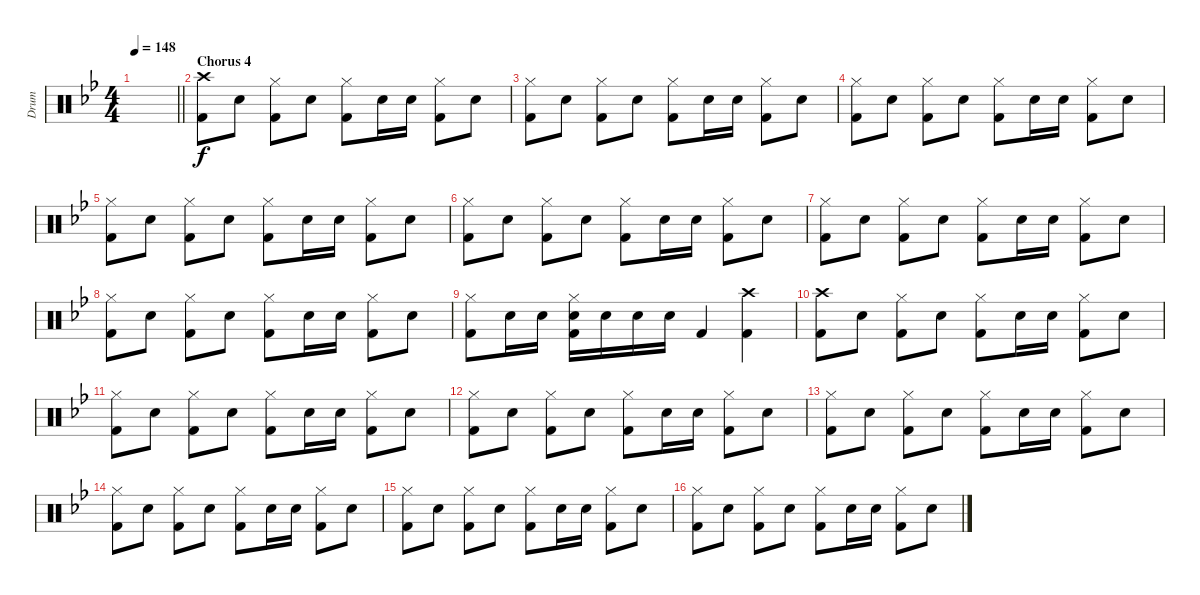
\track ("Drum" "Drum") {instrument percussion}
\staff {score}
\articulation defaults
\ts (4 4)
\tempo 148
\clef neutral
\barLineRight lightlight
\ks bb
|
\section ("" "Chorus 4")
("Crash high (hit)" "Kick (hit) 2").8 "Snare (hit) 2".8 ("Hi-Hat (closed)" "Kick (hit) 2").8 "Snare (hit) 2".8 ("Hi-Hat (closed)" "Kick (hit) 2").8 "Snare (hit) 2".16 "Snare (hit) 2".16 ("Hi-Hat (closed)" "Kick (hit) 2").8 "Snare (hit) 2".8 |
("Hi-Hat (closed)" "Kick (hit) 2").8 "Snare (hit) 2".8 ("Hi-Hat (closed)" "Kick (hit) 2").8 "Snare (hit) 2".8 ("Hi-Hat (closed)" "Kick (hit) 2").8 "Snare (hit) 2".16 "Snare (hit) 2".16 ("Hi-Hat (closed)" "Kick (hit) 2").8 "Snare (hit) 2".8 |
("Hi-Hat (closed)" "Kick (hit) 2").8 "Snare (hit) 2".8 ("Hi-Hat (closed)" "Kick (hit) 2").8 "Snare (hit) 2".8 ("Hi-Hat (closed)" "Kick (hit) 2").8 "Snare (hit) 2".16 "Snare (hit) 2".16 ("Hi-Hat (closed)" "Kick (hit) 2").8 "Snare (hit) 2".8 |
("Hi-Hat (closed)" "Kick (hit) 2").8 "Snare (hit) 2".8 ("Hi-Hat (closed)" "Kick (hit) 2").8 "Snare (hit) 2".8 ("Hi-Hat (closed)" "Kick (hit) 2").8 "Snare (hit) 2".16 "Snare (hit) 2".16 ("Hi-Hat (closed)" "Kick (hit) 2").8 "Snare (hit) 2".8 |
("Hi-Hat (closed)" "Kick (hit) 2").8 "Snare (hit) 2".8 ("Hi-Hat (closed)" "Kick (hit) 2").8 "Snare (hit) 2".8 ("Hi-Hat (closed)" "Kick (hit) 2").8 "Snare (hit) 2".16 "Snare (hit) 2".16 ("Hi-Hat (closed)" "Kick (hit) 2").8 "Snare (hit) 2".8 |
("Hi-Hat (closed)" "Kick (hit) 2").8 "Snare (hit) 2".8 ("Hi-Hat (closed)" "Kick (hit) 2").8 "Snare (hit) 2".8 ("Hi-Hat (closed)" "Kick (hit) 2").8 "Snare (hit) 2".16 "Snare (hit) 2".16 ("Hi-Hat (closed)" "Kick (hit) 2").8 "Snare (hit) 2".8 |
("Hi-Hat (closed)" "Kick (hit) 2").8 "Snare (hit) 2".8 ("Hi-Hat (closed)" "Kick (hit) 2").8 "Snare (hit) 2".8 ("Hi-Hat (closed)" "Kick (hit) 2").8 "Snare (hit) 2".16 "Snare (hit) 2".16 ("Hi-Hat (closed)" "Kick (hit) 2").8 "Snare (hit) 2".8 |
("Hi-Hat (closed)" "Kick (hit) 2").8 "Snare (hit) 2".16 "Snare (hit) 2".16 ("Hi-Hat (closed)" "Snare (hit) 2" "Kick (hit) 2").16 "Snare (hit) 2".16 "Snare (hit) 2".16 "Snare (hit) 2".16 "Kick (hit) 2".4 ("Crash high (hit)" "Kick (hit) 2").4 |
("Crash high (hit)" "Kick (hit) 2").8 "Snare (hit) 2".8 ("Hi-Hat (closed)" "Kick (hit) 2").8 "Snare (hit) 2".8 ("Hi-Hat (closed)" "Kick (hit) 2").8 "Snare (hit) 2".16 "Snare (hit) 2".16 ("Hi-Hat (closed)" "Kick (hit) 2").8 "Snare (hit) 2".8 |
("Hi-Hat (closed)" "Kick (hit) 2").8 "Snare (hit) 2".8 ("Hi-Hat (closed)" "Kick (hit) 2").8 "Snare (hit) 2".8 ("Hi-Hat (closed)" "Kick (hit) 2").8 "Snare (hit) 2".16 "Snare (hit) 2".16 ("Hi-Hat (closed)" "Kick (hit) 2").8 "Snare (hit) 2".8 |
("Hi-Hat (closed)" "Kick (hit) 2").8 "Snare (hit) 2".8 ("Hi-Hat (closed)" "Kick (hit) 2").8 "Snare (hit) 2".8 ("Hi-Hat (closed)" "Kick (hit) 2").8 "Snare (hit) 2".16 "Snare (hit) 2".16 ("Hi-Hat (closed)" "Kick (hit) 2").8 "Snare (hit) 2".8 |
("Hi-Hat (closed)" "Kick (hit) 2").8 "Snare (hit) 2".8 ("Hi-Hat (closed)" "Kick (hit) 2").8 "Snare (hit) 2".8 ("Hi-Hat (closed)" "Kick (hit) 2").8 "Snare (hit) 2".16 "Snare (hit) 2".16 ("Hi-Hat (closed)" "Kick (hit) 2").8 "Snare (hit) 2".8 |
("Hi-Hat (closed)" "Kick (hit) 2").8 "Snare (hit) 2".8 ("Hi-Hat (closed)" "Kick (hit) 2").8 "Snare (hit) 2".8 ("Hi-Hat (closed)" "Kick (hit) 2").8 "Snare (hit) 2".16 "Snare (hit) 2".16 ("Hi-Hat (closed)" "Kick (hit) 2").8 "Snare (hit) 2".8 |
("Hi-Hat (closed)" "Kick (hit) 2").8 "Snare (hit) 2".8 ("Hi-Hat (closed)" "Kick (hit) 2").8 "Snare (hit) 2".8 ("Hi-Hat (closed)" "Kick (hit) 2").8 "Snare (hit) 2".16 "Snare (hit) 2".16 ("Hi-Hat (closed)" "Kick (hit) 2").8 "Snare (hit) 2".8 |
("Hi-Hat (closed)" "Kick (hit) 2").8 "Snare (hit) 2".8 ("Hi-Hat (closed)" "Kick (hit) 2").8 "Snare (hit) 2".8 ("Hi-Hat (closed)" "Kick (hit) 2").8 "Snare (hit) 2".16 "Snare (hit) 2".16 ("Hi-Hat (closed)" "Kick (hit) 2").8 "Snare (hit) 2".8
